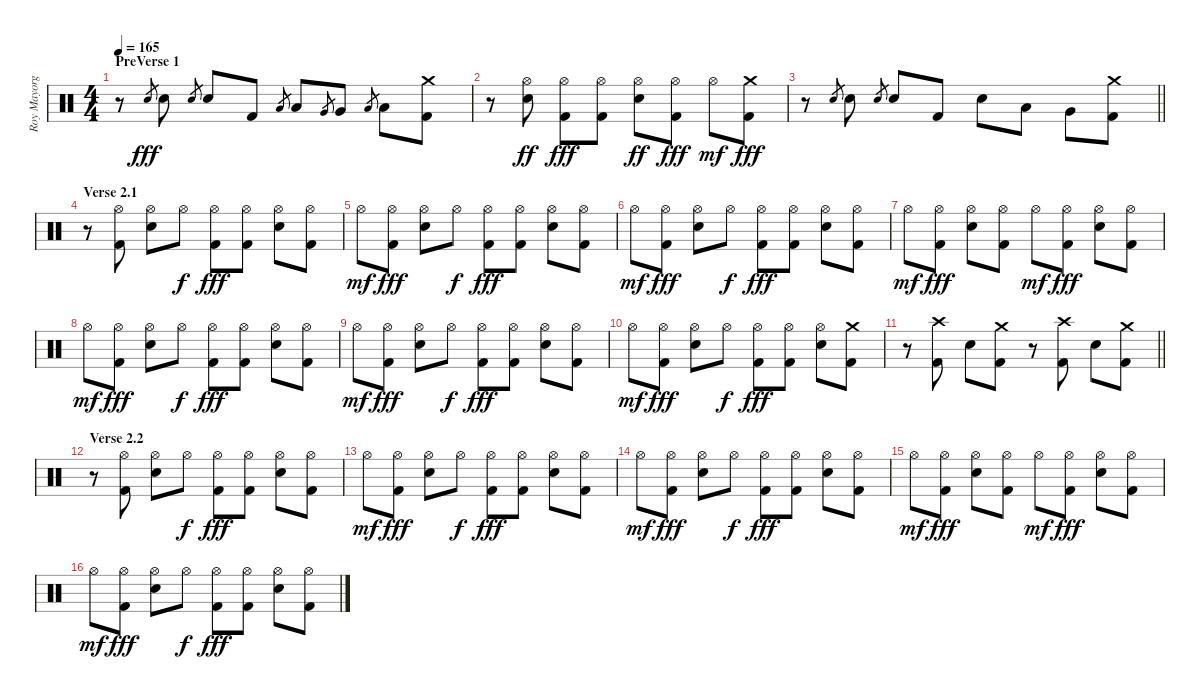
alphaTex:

\track ("Roy Mayorga" "Roy Mayorg") {instrument percussion}
\staff {score}
\articulation defaults
\ts (4 4)
\section ("" "PreVerse 1")
\tempo 165
\clef neutral
\ks c
r.8{dy fff} "Electric Snare (hit)".8{gr} "Electric Snare (hit)".8 "Electric Snare (hit)".8{gr} "Electric Snare (hit)".8 "Kick (hit) 2".8 "Low Tom (hit)".8{gr} "Low Tom (hit)".8 "Very Low Tom (hit)".8{gr} "Very Low Tom (hit)".8 "Low Floor Tom (hit)".8{gr} "Low Floor Tom (hit)".8 ("Crash medium (hit)" "Kick (hit) 2").8 |
r.8 ("Hi-Hat (open)" "Electric Snare (hit)").8{dy ff} ("Hi-Hat (open)" "Kick (hit) 2").8{dy fff} ("Hi-Hat (open)" "Kick (hit) 2").8 ("Hi-Hat (open)" "Electric Snare (hit)").8{dy ff} ("Hi-Hat (open)" "Kick (hit) 2").8{dy fff} "Hi-Hat (open)".8{dy mf} ("Crash medium (hit)" "Kick (hit) 2").8{dy fff} |
\barLineRight lightlight
r.8 "Electric Snare (hit)".8{gr} "Electric Snare (hit)".8 "Electric Snare (hit)".8{gr} "Electric Snare (hit)".8 "Kick (hit) 2".8 "Electric Snare (hit)".8 "Low Tom (hit)".8 "Very Low Tom (hit)".8 ("Crash medium (hit)" "Kick (hit) 2").8 |
\section ("" "Verse 2.1")
r.8 ("Hi-Hat (open)" "Kick (hit) 2").8 ("Hi-Hat (open)" "Electric Snare (hit)").8 "Hi-Hat (open)".8{dy f} ("Hi-Hat (open)" "Kick (hit) 2").8{dy fff} ("Hi-Hat (open)" "Kick (hit) 2").8 ("Hi-Hat (open)" "Electric Snare (hit)").8 ("Hi-Hat (open)" "Kick (hit) 2").8 |
"Hi-Hat (open)".8{dy mf} ("Hi-Hat (open)" "Kick (hit) 2").8{dy fff} ("Hi-Hat (open)" "Electric Snare (hit)").8 "Hi-Hat (open)".8{dy f} ("Hi-Hat (open)" "Kick (hit) 2").8{dy fff} ("Hi-Hat (open)" "Kick (hit) 2").8 ("Hi-Hat (open)" "Electric Snare (hit)").8 ("Hi-Hat (open)" "Kick (hit) 2").8 |
"Hi-Hat (open)".8{dy mf} ("Hi-Hat (open)" "Kick (hit) 2").8{dy fff} ("Hi-Hat (open)" "Electric Snare (hit)").8 "Hi-Hat (open)".8{dy f} ("Hi-Hat (open)" "Kick (hit) 2").8{dy fff} ("Hi-Hat (open)" "Kick (hit) 2").8 ("Hi-Hat (open)" "Electric Snare (hit)").8 ("Hi-Hat (open)" "Kick (hit) 2").8 |
"Hi-Hat (open)".8{dy mf} ("Hi-Hat (open)" "Kick (hit) 2").8{dy fff} ("Hi-Hat (open)" "Electric Snare (hit)").8 ("Hi-Hat (open)" "Kick (hit) 2").8 "Hi-Hat (open)".8{dy mf} ("Hi-Hat (open)" "Kick (hit) 2").8{dy fff} ("Hi-Hat (open)" "Electric Snare (hit)").8 ("Hi-Hat (open)" "Kick (hit) 2").8 |
"Hi-Hat (open)".8{dy mf} ("Hi-Hat (open)" "Kick (hit) 2").8{dy fff} ("Hi-Hat (open)" "Electric Snare (hit)").8 "Hi-Hat (open)".8{dy f} ("Hi-Hat (open)" "Kick (hit) 2").8{dy fff} ("Hi-Hat (open)" "Kick (hit) 2").8 ("Hi-Hat (open)" "Electric Snare (hit)").8 ("Hi-Hat (open)" "Kick (hit) 2").8 |
"Hi-Hat (open)".8{dy mf} ("Hi-Hat (open)" "Kick (hit) 2").8{dy fff} ("Hi-Hat (open)" "Electric Snare (hit)").8 "Hi-Hat (open)".8{dy f} ("Hi-Hat (open)" "Kick (hit) 2").8{dy fff} ("Hi-Hat (open)" "Kick (hit) 2").8 ("Hi-Hat (open)" "Electric Snare (hit)").8 ("Hi-Hat (open)" "Kick (hit) 2").8 |
"Hi-Hat (open)".8{dy mf} ("Hi-Hat (open)" "Kick (hit) 2").8{dy fff} ("Hi-Hat (open)" "Electric Snare (hit)").8 "Hi-Hat (open)".8{dy f} ("Hi-Hat (open)" "Kick (hit) 2").8{dy fff} ("Hi-Hat (open)" "Kick (hit) 2").8 ("Hi-Hat (open)" "Electric Snare (hit)").8 ("Crash medium (hit)" "Kick (hit) 2").8 |
\barLineRight lightlight
r.8 ("Crash high (hit)" "Kick (hit) 2").8 "Electric Snare (hit)".8 ("Crash medium (hit)" "Kick (hit) 2").8 r.8 ("Crash high (hit)" "Kick (hit) 2").8 "Electric Snare (hit)".8 ("Crash medium (hit)" "Kick (hit) 2").8 |
\section ("" "Verse 2.2")
r.8 ("Hi-Hat (open)" "Kick (hit) 2").8 ("Hi-Hat (open)" "Electric Snare (hit)").8 "Hi-Hat (open)".8{dy f} ("Hi-Hat (open)" "Kick (hit) 2").8{dy fff} ("Hi-Hat (open)" "Kick (hit) 2").8 ("Hi-Hat (open)" "Electric Snare (hit)").8 ("Hi-Hat (open)" "Kick (hit) 2").8 |
"Hi-Hat (open)".8{dy mf} ("Hi-Hat (open)" "Kick (hit) 2").8{dy fff} ("Hi-Hat (open)" "Electric Snare (hit)").8 "Hi-Hat (open)".8{dy f} ("Hi-Hat (open)" "Kick (hit) 2").8{dy fff} ("Hi-Hat (open)" "Kick (hit) 2").8 ("Hi-Hat (open)" "Electric Snare (hit)").8 ("Hi-Hat (open)" "Kick (hit) 2").8 |
"Hi-Hat (open)".8{dy mf} ("Hi-Hat (open)" "Kick (hit) 2").8{dy fff} ("Hi-Hat (open)" "Electric Snare (hit)").8 "Hi-Hat (open)".8{dy f} ("Hi-Hat (open)" "Kick (hit) 2").8{dy fff} ("Hi-Hat (open)" "Kick (hit) 2").8 ("Hi-Hat (open)" "Electric Snare (hit)").8 ("Hi-Hat (open)" "Kick (hit) 2").8 |
"Hi-Hat (open)".8{dy mf} ("Hi-Hat (open)" "Kick (hit) 2").8{dy fff} ("Hi-Hat (open)" "Electric Snare (hit)").8 ("Hi-Hat (open)" "Kick (hit) 2").8 "Hi-Hat (open)".8{dy mf} ("Hi-Hat (open)" "Kick (hit) 2").8{dy fff} ("Hi-Hat (open)" "Electric Snare (hit)").8 ("Hi-Hat (open)" "Kick (hit) 2").8 |
"Hi-Hat (open)".8{dy mf} ("Hi-Hat (open)" "Kick (hit) 2").8{dy fff} ("Hi-Hat (open)" "Electric Snare (hit)").8 "Hi-Hat (open)".8{dy f} ("Hi-Hat (open)" "Kick (hit) 2").8{dy fff} ("Hi-Hat (open)" "Kick (hit) 2").8 ("Hi-Hat (open)" "Electric Snare (hit)").8 ("Hi-Hat (open)" "Kick (hit) 2").8
